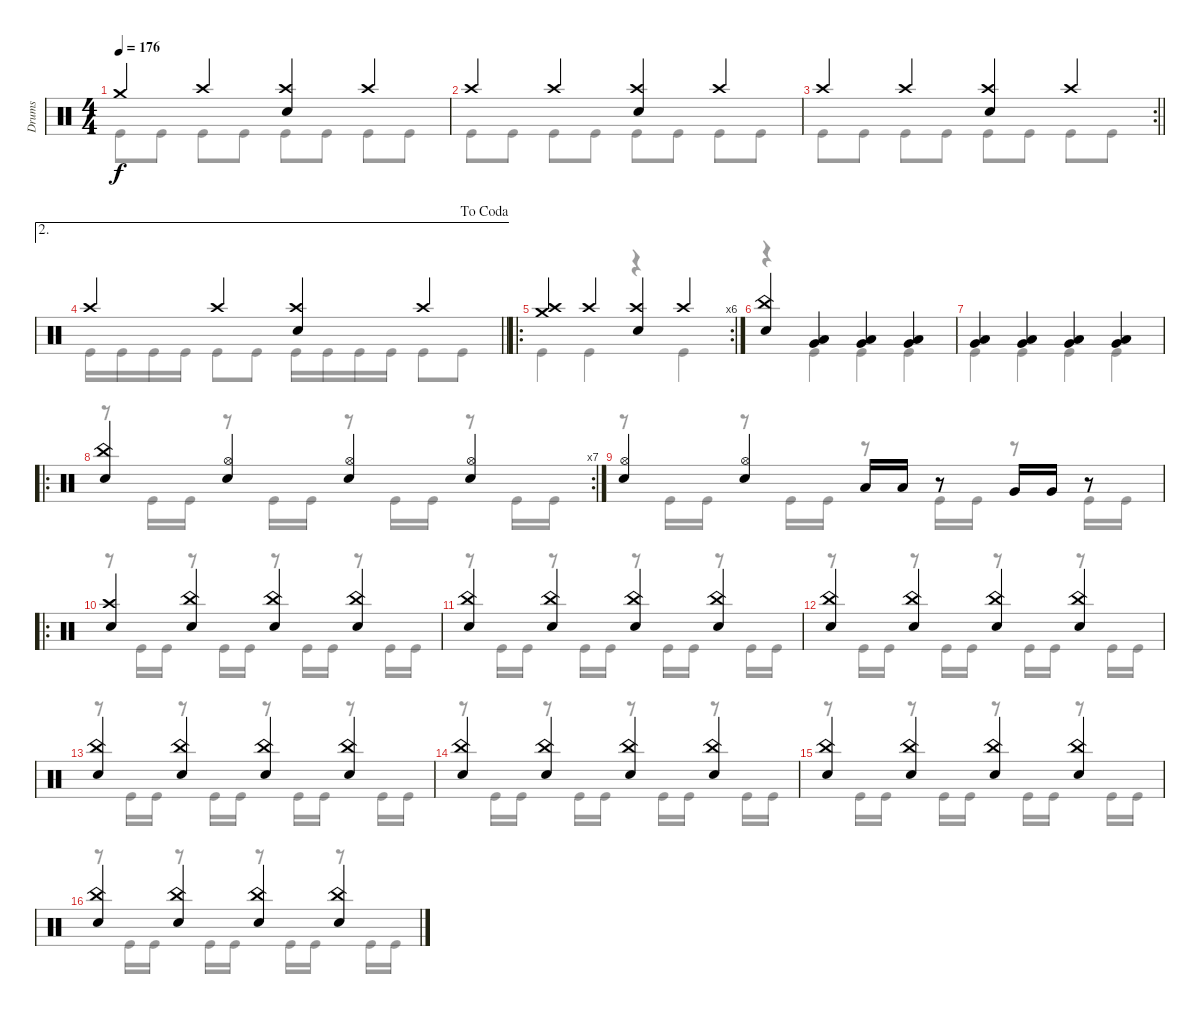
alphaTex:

\track ("Drums" "Drums") {instrument percussion}
\staff {score}
\articulation defaults
\voice
\ts (4 4)
\tempo 176
\clef neutral
\ks c "Crash medium (hit)".4{dy f} "Crash high (hit)".4
("Crash high (hit)" "Snare (hit) 2").4 "Crash high (hit)".4 |
"Crash high (hit)".4 "Crash high (hit)".4 ("Crash high (hit)" "Snare (hit) 2").4 "Crash high (hit)".4 |
\rc 2
\barLineRight lightlight "Crash high (hit)".4 "Crash high (hit)".4
("Crash high (hit)" "Snare (hit) 2").4 "Crash high (hit)".4 |
\ae 2
\jump dacoda
\barLineRight lightlight "Crash high (hit)".4 "Crash high (hit)".4
("Crash high (hit)" "Snare (hit) 2").4 "Crash high (hit)".4 |
\ro
\rc 6
("Crash medium (hit)" "Crash high (hit)").4 "Crash high (hit)".4 ("Crash high (hit)" "Snare (hit) 2").4 "Crash high (hit)".4 |
("China (hit)" "Snare (hit) 2").4 ("Low Tom (hit)" "Very Low Tom (hit)").4 ("Low Tom (hit)" "Very Low Tom (hit)").4 ("Low Tom (hit)" "Very Low Tom (hit)").4 |
("Very Low Tom (hit)" "Low Tom (hit)").4 ("Very Low Tom (hit)" "Low Tom (hit)").4 ("Very Low Tom (hit)" "Low Tom (hit)").4 ("Very Low Tom (hit)" "Low Tom (hit)").4 |
\ro
\rc 7
("China (hit)" "Snare (hit) 2").4 ("Snare (hit) 2" "Hi-Hat (open)").4 ("Snare (hit) 2" "Hi-Hat (open)").4 ("Snare (hit) 2" "Hi-Hat (open)").4 |
("Snare (hit) 2" "Hi-Hat (open)").4 ("Snare (hit) 2" "Hi-Hat (open)").4 "Low Tom (hit)".16 "Low Tom (hit)".16 r.8 "Very Low Tom (hit)".16 "Very Low Tom (hit)".16 r.8 |
\ro
("Snare (hit) 2" "Crash high (hit)").4 ("Snare (hit) 2" "China (hit)").4 ("Snare (hit) 2" "China (hit)").4 ("Snare (hit) 2" "China (hit)").4 |
("Snare (hit) 2" "China (hit)").4 ("Snare (hit) 2" "China (hit)").4 ("Snare (hit) 2" "China (hit)").4 ("Snare (hit) 2" "China (hit)").4 |
("Snare (hit) 2" "China (hit)").4 ("Snare (hit) 2" "China (hit)").4 ("Snare (hit) 2" "China (hit)").4 ("Snare (hit) 2" "China (hit)").4 |
("Snare (hit) 2" "China (hit)").4 ("Snare (hit) 2" "China (hit)").4 ("Snare (hit) 2" "China (hit)").4 ("Snare (hit) 2" "China (hit)").4 |
("Snare (hit) 2" "China (hit)").4 ("Snare (hit) 2" "China (hit)").4 ("Snare (hit) 2" "China (hit)").4 ("Snare (hit) 2" "China (hit)").4 |
("Snare (hit) 2" "China (hit)").4 ("Snare (hit) 2" "China (hit)").4 ("Snare (hit) 2" "China (hit)").4 ("Snare (hit) 2" "China (hit)").4 |
("Snare (hit) 2" "China (hit)").4 ("Snare (hit) 2" "China (hit)").4 ("Snare (hit) 2" "China (hit)").4 ("Snare (hit) 2" "China (hit)").4
\voice
\clef neutral
\ottava regular
\simile none
\ks c "Kick (hit)".8{dy f} "Kick (hit)".8 "Kick (hit)".8 "Kick (hit)".8 "Kick (hit)".8 "Kick (hit)".8 "Kick (hit)".8 "Kick (hit)".8
|
"Kick (hit)".8 "Kick (hit)".8 "Kick (hit)".8 "Kick (hit)".8 "Kick (hit)".8 "Kick (hit)".8 "Kick (hit)".8 "Kick (hit)".8 |
\barLineRight lightlight "Kick (hit)".8 "Kick (hit)".8 "Kick (hit)".8 "Kick (hit)".8 "Kick (hit)".8 "Kick (hit)".8 "Kick (hit)".8 "Kick (hit)".8
|
\barLineRight lightlight "Kick (hit)".16 "Kick (hit)".16 "Kick (hit)".16 "Kick (hit)".16 "Kick (hit)".8 "Kick (hit)".8 "Kick (hit)".16 "Kick (hit)".16 "Kick (hit)".16 "Kick (hit)".16 "Kick (hit)".8 "Kick (hit)".8
|
"Kick (hit)".4 "Kick (hit)".4 r.4 "Kick (hit)".4 |
r.4 "Kick (hit)".4 "Kick (hit)".4 "Kick (hit)".4 |
"Kick (hit)".4 "Kick (hit)".4 "Kick (hit)".4 "Kick (hit)".4 |
r.8 "Kick (hit)".16 "Kick (hit)".16 r.8 "Kick (hit)".16 "Kick (hit)".16 r.8 "Kick (hit)".16 "Kick (hit)".16 r.8 "Kick (hit)".16 "Kick (hit)".16 |
r.8 "Kick (hit)".16 "Kick (hit)".16 r.8 "Kick (hit)".16 "Kick (hit)".16 r.8 "Kick (hit)".16 "Kick (hit)".16 r.8 "Kick (hit)".16 "Kick (hit)".16 |
r.8 "Kick (hit)".16 "Kick (hit)".16 r.8 "Kick (hit)".16 "Kick (hit)".16 r.8 "Kick (hit)".16 "Kick (hit)".16 r.8 "Kick (hit)".16 "Kick (hit)".16 |
r.8 "Kick (hit)".16 "Kick (hit)".16 r.8 "Kick (hit)".16 "Kick (hit)".16 r.8 "Kick (hit)".16 "Kick (hit)".16 r.8 "Kick (hit)".16 "Kick (hit)".16 |
r.8 "Kick (hit)".16 "Kick (hit)".16 r.8 "Kick (hit)".16 "Kick (hit)".16 r.8 "Kick (hit)".16 "Kick (hit)".16 r.8 "Kick (hit)".16 "Kick (hit)".16 |
r.8 "Kick (hit)".16 "Kick (hit)".16 r.8 "Kick (hit)".16 "Kick (hit)".16 r.8 "Kick (hit)".16 "Kick (hit)".16 r.8 "Kick (hit)".16 "Kick (hit)".16 |
r.8 "Kick (hit)".16 "Kick (hit)".16 r.8 "Kick (hit)".16 "Kick (hit)".16 r.8 "Kick (hit)".16 "Kick (hit)".16 r.8 "Kick (hit)".16 "Kick (hit)".16 |
r.8 "Kick (hit)".16 "Kick (hit)".16 r.8 "Kick (hit)".16 "Kick (hit)".16 r.8 "Kick (hit)".16 "Kick (hit)".16 r.8 "Kick (hit)".16 "Kick (hit)".16 |
r.8 "Kick (hit)".16 "Kick (hit)".16 r.8 "Kick (hit)".16 "Kick (hit)".16 r.8 "Kick (hit)".16 "Kick (hit)".16 r.8 "Kick (hit)".16 "Kick (hit)".16
